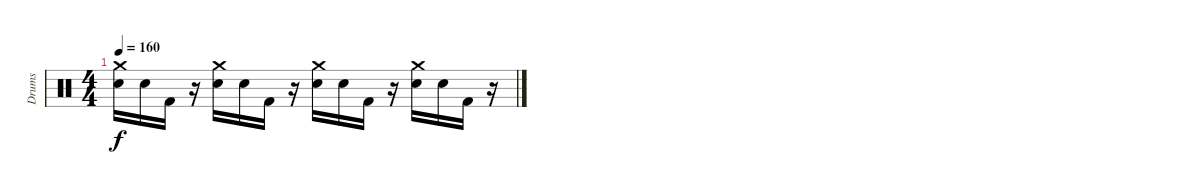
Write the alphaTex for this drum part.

\track ("Drums" "Drums") {instrument percussion}
\staff {score}
\articulation defaults
\ts (4 4)
\tempo 160
\clef neutral
\ks c
("Crash medium (hit)" "Snare (hit) 2").16{dy f} "Snare (hit) 2".16 "Kick (hit) 2".16 r.16 ("Crash medium (hit)" "Snare (hit) 2").16 "Snare (hit) 2".16 "Kick (hit) 2".16 r.16 ("Crash medium (hit)" "Snare (hit) 2").16 "Snare (hit) 2".16 "Kick (hit) 2".16 r.16 ("Crash medium (hit)" "Snare (hit) 2").16 "Snare (hit) 2".16 "Kick (hit) 2".16 r.16
